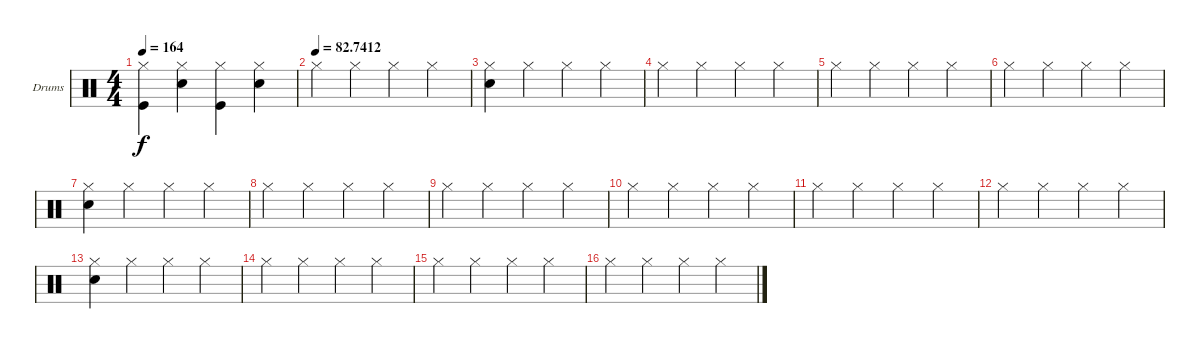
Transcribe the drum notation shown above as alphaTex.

\bracketExtendMode groupsimilarinstruments
\firstSystemTrackNameOrientation horizontal
\otherSystemsTrackNameOrientation horizontal
\track ("Matt Sorum - Drums" "Drums") {instrument percussion}
\staff {score}
\articulation defaults
\ts (4 4)
\tempo 164
\clef neutral
\ks aminor
("Hi-Hat (closed)" "Kick (hit)").4{dy f} ("Hi-Hat (closed)" "Snare (hit) 2").4 ("Hi-Hat (closed)" "Kick (hit)").4 ("Hi-Hat (closed)" "Snare (hit) 2").4 |
\tempo (82.7412)
"Hi-Hat (closed)".4 "Hi-Hat (closed)".4 "Hi-Hat (closed)".4 "Hi-Hat (closed)".4 |
("Snare (hit) 2" "Hi-Hat (closed)").4 "Hi-Hat (closed)".4 "Hi-Hat (closed)".4 "Hi-Hat (closed)".4 |
"Hi-Hat (closed)".4 "Hi-Hat (closed)".4 "Hi-Hat (closed)".4 "Hi-Hat (closed)".4 |
"Hi-Hat (closed)".4 "Hi-Hat (closed)".4 "Hi-Hat (closed)".4 "Hi-Hat (closed)".4 |
"Hi-Hat (closed)".4 "Hi-Hat (closed)".4 "Hi-Hat (closed)".4 "Hi-Hat (closed)".4 |
("Snare (hit) 2" "Hi-Hat (closed)").4 "Hi-Hat (closed)".4 "Hi-Hat (closed)".4 "Hi-Hat (closed)".4 |
"Hi-Hat (closed)".4 "Hi-Hat (closed)".4 "Hi-Hat (closed)".4 "Hi-Hat (closed)".4 |
"Hi-Hat (closed)".4 "Hi-Hat (closed)".4 "Hi-Hat (closed)".4 "Hi-Hat (closed)".4 |
"Hi-Hat (closed)".4 "Hi-Hat (closed)".4 "Hi-Hat (closed)".4 "Hi-Hat (closed)".4 |
"Hi-Hat (closed)".4 "Hi-Hat (closed)".4 "Hi-Hat (closed)".4 "Hi-Hat (closed)".4 |
"Hi-Hat (closed)".4 "Hi-Hat (closed)".4 "Hi-Hat (closed)".4 "Hi-Hat (closed)".4 |
("Snare (hit) 2" "Hi-Hat (closed)").4 "Hi-Hat (closed)".4 "Hi-Hat (closed)".4 "Hi-Hat (closed)".4 |
"Hi-Hat (closed)".4 "Hi-Hat (closed)".4 "Hi-Hat (closed)".4 "Hi-Hat (closed)".4 |
"Hi-Hat (closed)".4 "Hi-Hat (closed)".4 "Hi-Hat (closed)".4 "Hi-Hat (closed)".4 |
"Hi-Hat (closed)".4 "Hi-Hat (closed)".4 "Hi-Hat (closed)".4 "Hi-Hat (closed)".4
